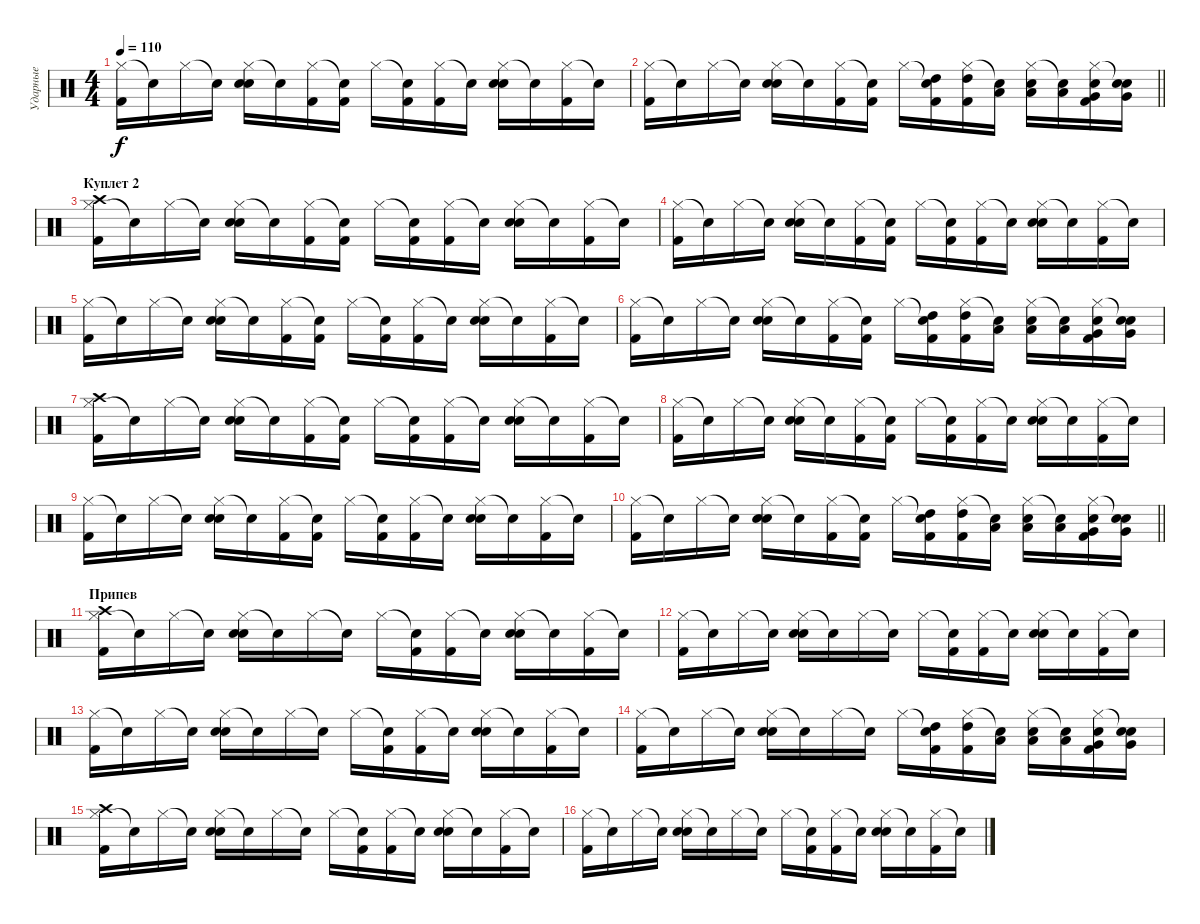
\track ("Ударные" "Ударные") {instrument percussion}
\staff {score}
\articulation defaults
\ts (4 4)
\tempo 110
\clef neutral
\ks c
("Hi-Hat (closed)" "Kick (hit) 2").16{dy f} "Snare (hit)"{t}.16 "Hi-Hat (closed)".16 "Snare (hit)"{t}.16 ("Hi-Hat (closed)" "Snare (hit) 2" "Electric Snare (hit)").16 "Snare (hit)"{t}.16 ("Hi-Hat (closed)" "Kick (hit) 2").16 ("Snare (hit)"{t} "Kick (hit) 2").16 "Hi-Hat (closed)".16 ("Snare (hit)"{t} "Kick (hit) 2").16 ("Hi-Hat (closed)" "Kick (hit) 2").16 "Snare (hit)"{t}.16 ("Hi-Hat (closed)" "Electric Snare (hit)" "Snare (hit) 2").16 "Snare (hit)"{t}.16 ("Hi-Hat (closed)" "Kick (hit) 2").16 "Snare (hit)"{t}.16 |
\barLineRight lightlight
("Hi-Hat (closed)" "Kick (hit) 2").16 "Snare (hit)"{t}.16 "Hi-Hat (closed)".16 "Snare (hit)"{t}.16 ("Hi-Hat (closed)" "Snare (hit) 2" "Electric Snare (hit)").16 "Snare (hit)"{t}.16 ("Hi-Hat (closed)" "Kick (hit) 2").16 ("Snare (hit)"{t} "Kick (hit) 2").16 "Hi-Hat (closed)".16 ("Snare (hit)"{t} "High Tom (hit)" "Kick (hit) 2").16 ("Hi-Hat (closed)" "High Tom (hit)" "Kick (hit) 2").16 ("Snare (hit)"{t} "Low Tom (hit)").16 ("Hi-Hat (closed)" "Low Tom (hit)" "Snare (hit) 2").16 ("Snare (hit)"{t} "Low Tom (hit)").16 ("Hi-Hat (closed)" "Very Low Tom (hit)" "Electric Snare (hit)" "Kick (hit) 2").16 ("Snare (hit)"{t} "Very Low Tom (hit)" "Electric Snare (hit)").16 |
\section ("" "Куплет 2")
("Hi-Hat (closed)" "Crash high (hit)" "Kick (hit) 2").16 "Snare (hit)"{t}.16 "Hi-Hat (closed)".16 "Snare (hit)"{t}.16 ("Hi-Hat (closed)" "Snare (hit) 2" "Electric Snare (hit)").16 "Snare (hit)"{t}.16 ("Hi-Hat (closed)" "Kick (hit) 2").16 ("Snare (hit)"{t} "Kick (hit) 2").16 "Hi-Hat (closed)".16 ("Snare (hit)"{t} "Kick (hit) 2").16 ("Hi-Hat (closed)" "Kick (hit) 2").16 "Snare (hit)"{t}.16 ("Hi-Hat (closed)" "Electric Snare (hit)" "Snare (hit) 2").16 "Snare (hit)"{t}.16 ("Hi-Hat (closed)" "Kick (hit) 2").16 "Snare (hit)"{t}.16 |
("Hi-Hat (closed)" "Kick (hit) 2").16 "Snare (hit)"{t}.16 "Hi-Hat (closed)".16 "Snare (hit)"{t}.16 ("Hi-Hat (closed)" "Snare (hit) 2" "Electric Snare (hit)").16 "Snare (hit)"{t}.16 ("Hi-Hat (closed)" "Kick (hit) 2").16 ("Snare (hit)"{t} "Kick (hit) 2").16 "Hi-Hat (closed)".16 ("Snare (hit)"{t} "Kick (hit) 2").16 ("Hi-Hat (closed)" "Kick (hit) 2").16 "Snare (hit)"{t}.16 ("Hi-Hat (closed)" "Electric Snare (hit)" "Snare (hit) 2").16 "Snare (hit)"{t}.16 ("Hi-Hat (closed)" "Kick (hit) 2").16 "Snare (hit)"{t}.16 |
("Hi-Hat (closed)" "Kick (hit) 2").16 "Snare (hit)"{t}.16 "Hi-Hat (closed)".16 "Snare (hit)"{t}.16 ("Hi-Hat (closed)" "Snare (hit) 2" "Electric Snare (hit)").16 "Snare (hit)"{t}.16 ("Hi-Hat (closed)" "Kick (hit) 2").16 ("Snare (hit)"{t} "Kick (hit) 2").16 "Hi-Hat (closed)".16 ("Snare (hit)"{t} "Kick (hit) 2").16 ("Hi-Hat (closed)" "Kick (hit) 2").16 "Snare (hit)"{t}.16 ("Hi-Hat (closed)" "Electric Snare (hit)" "Snare (hit) 2").16 "Snare (hit)"{t}.16 ("Hi-Hat (closed)" "Kick (hit) 2").16 "Snare (hit)"{t}.16 |
("Hi-Hat (closed)" "Kick (hit) 2").16 "Snare (hit)"{t}.16 "Hi-Hat (closed)".16 "Snare (hit)"{t}.16 ("Hi-Hat (closed)" "Snare (hit) 2" "Electric Snare (hit)").16 "Snare (hit)"{t}.16 ("Hi-Hat (closed)" "Kick (hit) 2").16 ("Snare (hit)"{t} "Kick (hit) 2").16 "Hi-Hat (closed)".16 ("Snare (hit)"{t} "High Tom (hit)" "Kick (hit) 2").16 ("Hi-Hat (closed)" "High Tom (hit)" "Kick (hit) 2").16 ("Snare (hit)"{t} "Low Tom (hit)").16 ("Hi-Hat (closed)" "Low Tom (hit)" "Snare (hit) 2").16 ("Snare (hit)"{t} "Low Tom (hit)").16 ("Hi-Hat (closed)" "Very Low Tom (hit)" "Electric Snare (hit)" "Kick (hit) 2").16 ("Snare (hit)"{t} "Very Low Tom (hit)" "Electric Snare (hit)").16 |
("Hi-Hat (closed)" "Crash high (hit)" "Kick (hit) 2").16 "Snare (hit)"{t}.16 "Hi-Hat (closed)".16 "Snare (hit)"{t}.16 ("Hi-Hat (closed)" "Snare (hit) 2" "Electric Snare (hit)").16 "Snare (hit)"{t}.16 ("Hi-Hat (closed)" "Kick (hit) 2").16 ("Snare (hit)"{t} "Kick (hit) 2").16 "Hi-Hat (closed)".16 ("Snare (hit)"{t} "Kick (hit) 2").16 ("Hi-Hat (closed)" "Kick (hit) 2").16 "Snare (hit)"{t}.16 ("Hi-Hat (closed)" "Electric Snare (hit)" "Snare (hit) 2").16 "Snare (hit)"{t}.16 ("Hi-Hat (closed)" "Kick (hit) 2").16 "Snare (hit)"{t}.16 |
("Hi-Hat (closed)" "Kick (hit) 2").16 "Snare (hit)"{t}.16 "Hi-Hat (closed)".16 "Snare (hit)"{t}.16 ("Hi-Hat (closed)" "Snare (hit) 2" "Electric Snare (hit)").16 "Snare (hit)"{t}.16 ("Hi-Hat (closed)" "Kick (hit) 2").16 ("Snare (hit)"{t} "Kick (hit) 2").16 "Hi-Hat (closed)".16 ("Snare (hit)"{t} "Kick (hit) 2").16 ("Hi-Hat (closed)" "Kick (hit) 2").16 "Snare (hit)"{t}.16 ("Hi-Hat (closed)" "Electric Snare (hit)" "Snare (hit) 2").16 "Snare (hit)"{t}.16 ("Hi-Hat (closed)" "Kick (hit) 2").16 "Snare (hit)"{t}.16 |
("Hi-Hat (closed)" "Kick (hit) 2").16 "Snare (hit)"{t}.16 "Hi-Hat (closed)".16 "Snare (hit)"{t}.16 ("Hi-Hat (closed)" "Snare (hit) 2" "Electric Snare (hit)").16 "Snare (hit)"{t}.16 ("Hi-Hat (closed)" "Kick (hit) 2").16 ("Snare (hit)"{t} "Kick (hit) 2").16 "Hi-Hat (closed)".16 ("Snare (hit)"{t} "Kick (hit) 2").16 ("Hi-Hat (closed)" "Kick (hit) 2").16 "Snare (hit)"{t}.16 ("Hi-Hat (closed)" "Electric Snare (hit)" "Snare (hit) 2").16 "Snare (hit)"{t}.16 ("Hi-Hat (closed)" "Kick (hit) 2").16 "Snare (hit)"{t}.16 |
\barLineRight lightlight
("Hi-Hat (closed)" "Kick (hit) 2").16 "Snare (hit)"{t}.16 "Hi-Hat (closed)".16 "Snare (hit)"{t}.16 ("Hi-Hat (closed)" "Snare (hit) 2" "Electric Snare (hit)").16 "Snare (hit)"{t}.16 ("Hi-Hat (closed)" "Kick (hit) 2").16 ("Snare (hit)"{t} "Kick (hit) 2").16 "Hi-Hat (closed)".16 ("Snare (hit)"{t} "High Tom (hit)" "Kick (hit) 2").16 ("Hi-Hat (closed)" "High Tom (hit)" "Kick (hit) 2").16 ("Snare (hit)"{t} "Low Tom (hit)").16 ("Hi-Hat (closed)" "Low Tom (hit)" "Snare (hit) 2").16 ("Snare (hit)"{t} "Low Tom (hit)").16 ("Hi-Hat (closed)" "Very Low Tom (hit)" "Electric Snare (hit)" "Kick (hit) 2").16 ("Snare (hit)"{t} "Very Low Tom (hit)" "Electric Snare (hit)").16 |
\section ("" "Припев")
("Hi-Hat (closed)" "Crash high (hit)" "Kick (hit) 2").16 "Snare (hit)"{t}.16 "Hi-Hat (closed)".16 "Snare (hit)"{t}.16 ("Hi-Hat (closed)" "Snare (hit) 2" "Electric Snare (hit)").16 "Snare (hit)"{t}.16 "Hi-Hat (closed)".16 "Snare (hit)"{t}.16 "Hi-Hat (closed)".16 ("Snare (hit)"{t} "Kick (hit) 2").16 ("Hi-Hat (closed)" "Kick (hit) 2").16 "Snare (hit)"{t}.16 ("Hi-Hat (closed)" "Electric Snare (hit)" "Snare (hit) 2").16 "Snare (hit)"{t}.16 ("Hi-Hat (closed)" "Kick (hit) 2").16 "Snare (hit)"{t}.16 |
("Hi-Hat (closed)" "Kick (hit) 2").16 "Snare (hit)"{t}.16 "Hi-Hat (closed)".16 "Snare (hit)"{t}.16 ("Hi-Hat (closed)" "Snare (hit) 2" "Electric Snare (hit)").16 "Snare (hit)"{t}.16 "Hi-Hat (closed)".16 "Snare (hit)"{t}.16 "Hi-Hat (closed)".16 ("Snare (hit)"{t} "Kick (hit) 2").16 ("Hi-Hat (closed)" "Kick (hit) 2").16 "Snare (hit)"{t}.16 ("Hi-Hat (closed)" "Electric Snare (hit)" "Snare (hit) 2").16 "Snare (hit)"{t}.16 ("Hi-Hat (closed)" "Kick (hit) 2").16 "Snare (hit)"{t}.16 |
("Hi-Hat (closed)" "Kick (hit) 2").16 "Snare (hit)"{t}.16 "Hi-Hat (closed)".16 "Snare (hit)"{t}.16 ("Hi-Hat (closed)" "Snare (hit) 2" "Electric Snare (hit)").16 "Snare (hit)"{t}.16 "Hi-Hat (closed)".16 "Snare (hit)"{t}.16 "Hi-Hat (closed)".16 ("Snare (hit)"{t} "Kick (hit) 2").16 ("Hi-Hat (closed)" "Kick (hit) 2").16 "Snare (hit)"{t}.16 ("Hi-Hat (closed)" "Electric Snare (hit)" "Snare (hit) 2").16 "Snare (hit)"{t}.16 ("Hi-Hat (closed)" "Kick (hit) 2").16 "Snare (hit)"{t}.16 |
("Hi-Hat (closed)" "Kick (hit) 2").16 "Snare (hit)"{t}.16 "Hi-Hat (closed)".16 "Snare (hit)"{t}.16 ("Hi-Hat (closed)" "Snare (hit) 2" "Electric Snare (hit)").16 "Snare (hit)"{t}.16 "Hi-Hat (closed)".16 "Snare (hit)"{t}.16 "Hi-Hat (closed)".16 ("Snare (hit)"{t} "High Tom (hit)" "Kick (hit) 2").16 ("Hi-Hat (closed)" "High Tom (hit)" "Kick (hit) 2").16 ("Snare (hit)"{t} "Low Tom (hit)").16 ("Hi-Hat (closed)" "Low Tom (hit)" "Snare (hit) 2").16 ("Snare (hit)"{t} "Low Tom (hit)").16 ("Hi-Hat (closed)" "Very Low Tom (hit)" "Electric Snare (hit)" "Kick (hit) 2").16 ("Snare (hit)"{t} "Very Low Tom (hit)" "Electric Snare (hit)").16 |
("Hi-Hat (closed)" "Crash high (hit)" "Kick (hit) 2").16 "Snare (hit)"{t}.16 "Hi-Hat (closed)".16 "Snare (hit)"{t}.16 ("Hi-Hat (closed)" "Snare (hit) 2" "Electric Snare (hit)").16 "Snare (hit)"{t}.16 "Hi-Hat (closed)".16 "Snare (hit)"{t}.16 "Hi-Hat (closed)".16 ("Snare (hit)"{t} "Kick (hit) 2").16 ("Hi-Hat (closed)" "Kick (hit) 2").16 "Snare (hit)"{t}.16 ("Hi-Hat (closed)" "Electric Snare (hit)" "Snare (hit) 2").16 "Snare (hit)"{t}.16 ("Hi-Hat (closed)" "Kick (hit) 2").16 "Snare (hit)"{t}.16 |
("Hi-Hat (closed)" "Kick (hit) 2").16 "Snare (hit)"{t}.16 "Hi-Hat (closed)".16 "Snare (hit)"{t}.16 ("Hi-Hat (closed)" "Snare (hit) 2" "Electric Snare (hit)").16 "Snare (hit)"{t}.16 "Hi-Hat (closed)".16 "Snare (hit)"{t}.16 "Hi-Hat (closed)".16 ("Snare (hit)"{t} "Kick (hit) 2").16 ("Hi-Hat (closed)" "Kick (hit) 2").16 "Snare (hit)"{t}.16 ("Hi-Hat (closed)" "Electric Snare (hit)" "Snare (hit) 2").16 "Snare (hit)"{t}.16 ("Hi-Hat (closed)" "Kick (hit) 2").16 "Snare (hit)"{t}.16
